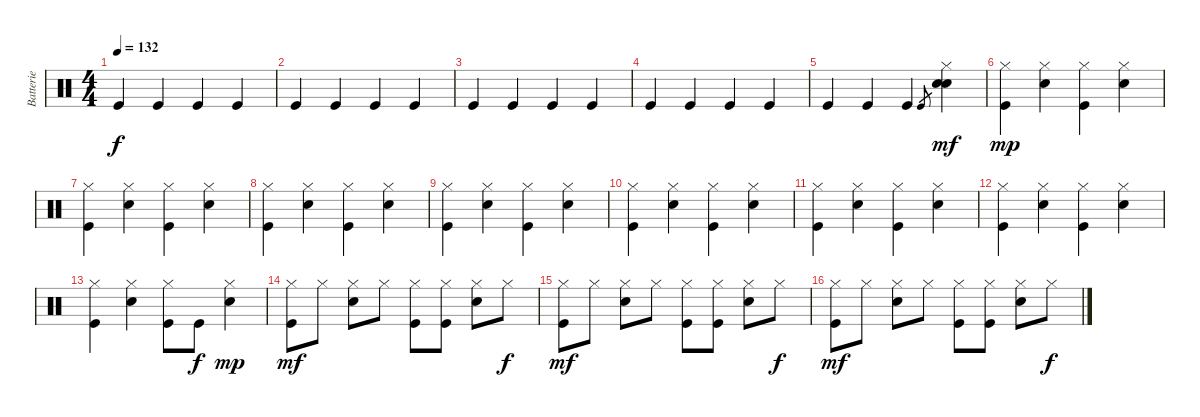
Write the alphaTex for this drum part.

\track ("Batterie" "Batterie") {instrument percussion}
\staff {score}
\articulation defaults
\ts (4 4)
\tempo 132
\clef neutral
\ks c "Kick (hit)".4{dy f} "Kick (hit)".4 "Kick (hit)".4 "Kick (hit)".4
|
"Kick (hit)".4 "Kick (hit)".4 "Kick (hit)".4 "Kick (hit)".4 |
"Kick (hit)".4 "Kick (hit)".4 "Kick (hit)".4 "Kick (hit)".4 |
"Kick (hit)".4 "Kick (hit)".4 "Kick (hit)".4 "Kick (hit)".4 |
"Kick (hit)".4 "Kick (hit)".4 "Kick (hit)".4 "Kick (hit)".8{gr} ("Hi-Hat (closed)" "Snare (hit) 2" "Snare (hit) 2").4{dy mf} |
("Hi-Hat (closed)" "Kick (hit)").4{dy mp} ("Hi-Hat (closed)" "Snare (hit) 2").4 ("Hi-Hat (closed)" "Kick (hit)").4 ("Hi-Hat (closed)" "Snare (hit) 2").4 |
("Hi-Hat (closed)" "Kick (hit)").4 ("Hi-Hat (closed)" "Snare (hit) 2").4 ("Hi-Hat (closed)" "Kick (hit)").4 ("Hi-Hat (closed)" "Snare (hit) 2").4 |
("Hi-Hat (closed)" "Kick (hit)").4 ("Hi-Hat (closed)" "Snare (hit) 2").4 ("Hi-Hat (closed)" "Kick (hit)").4 ("Hi-Hat (closed)" "Snare (hit) 2").4 |
("Hi-Hat (closed)" "Kick (hit)").4 ("Hi-Hat (closed)" "Snare (hit) 2").4 ("Hi-Hat (closed)" "Kick (hit)").4 ("Hi-Hat (closed)" "Snare (hit) 2").4 |
("Hi-Hat (closed)" "Kick (hit)").4 ("Hi-Hat (closed)" "Snare (hit) 2").4 ("Hi-Hat (closed)" "Kick (hit)").4 ("Hi-Hat (closed)" "Snare (hit) 2").4 |
("Hi-Hat (closed)" "Kick (hit)").4 ("Hi-Hat (closed)" "Snare (hit) 2").4 ("Hi-Hat (closed)" "Kick (hit)").4 ("Hi-Hat (closed)" "Snare (hit) 2").4 |
("Hi-Hat (closed)" "Kick (hit)").4 ("Hi-Hat (closed)" "Snare (hit) 2").4 ("Hi-Hat (closed)" "Kick (hit)").4 ("Hi-Hat (closed)" "Snare (hit) 2").4 |
("Hi-Hat (closed)" "Kick (hit)").4 ("Hi-Hat (closed)" "Snare (hit) 2").4 ("Hi-Hat (closed)" "Kick (hit)").8 "Kick (hit)".8{dy f} ("Hi-Hat (closed)" "Snare (hit) 2").4{dy mp} |
("Hi-Hat (closed)" "Kick (hit)").8{dy mf} "Hi-Hat (closed)".8 ("Hi-Hat (closed)" "Snare (hit) 2").8 "Hi-Hat (closed)".8 ("Hi-Hat (closed)" "Kick (hit)").8 ("Hi-Hat (closed)" "Kick (hit)").8 ("Hi-Hat (closed)" "Snare (hit) 2").8 "Hi-Hat (closed)".8{dy f} |
("Hi-Hat (closed)" "Kick (hit)").8{dy mf} "Hi-Hat (closed)".8 ("Hi-Hat (closed)" "Snare (hit) 2").8 "Hi-Hat (closed)".8 ("Hi-Hat (closed)" "Kick (hit)").8 ("Hi-Hat (closed)" "Kick (hit)").8 ("Hi-Hat (closed)" "Snare (hit) 2").8 "Hi-Hat (closed)".8{dy f} |
("Hi-Hat (closed)" "Kick (hit)").8{dy mf} "Hi-Hat (closed)".8 ("Hi-Hat (closed)" "Snare (hit) 2").8 "Hi-Hat (closed)".8 ("Hi-Hat (closed)" "Kick (hit)").8 ("Hi-Hat (closed)" "Kick (hit)").8 ("Hi-Hat (closed)" "Snare (hit) 2").8 "Hi-Hat (closed)".8{dy f}
